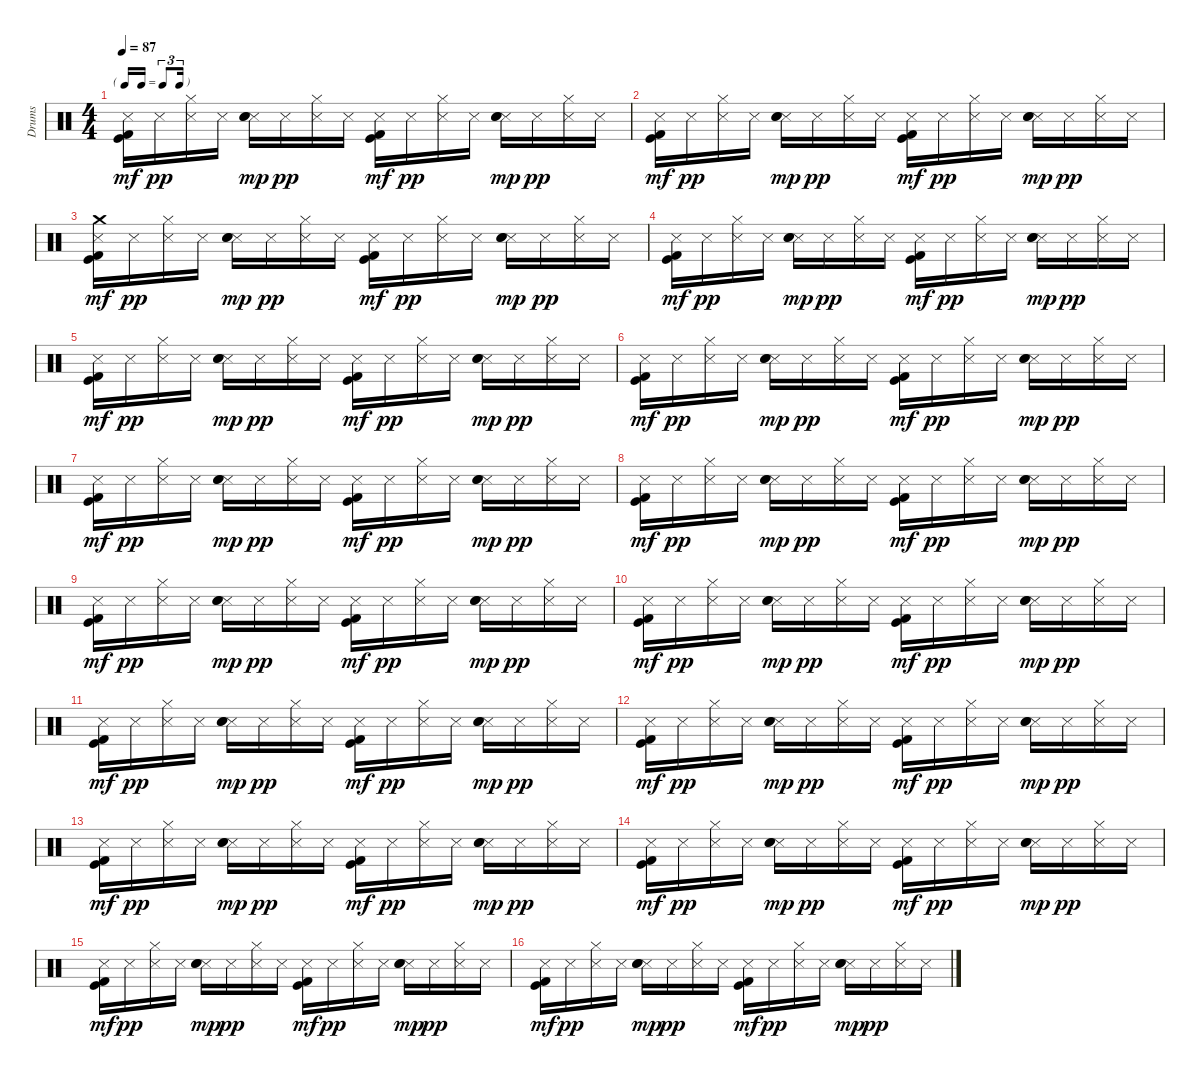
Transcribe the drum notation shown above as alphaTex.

\track ("Drums" "Drums") {instrument percussion}
\staff {score}
\articulation defaults
\ts (4 4)
\tf triplet16th
\tempo 87
\clef neutral
\ks c
("Metronome (hit)" "Kick (hit)" "Kick (hit) 2").16{dy mf} "Metronome (hit)".16{dy pp} ("Hi-Hat (closed)" "Metronome (hit)").16 "Metronome (hit)".16 ("Metronome (hit)" "Electric Snare (hit)" "Snare (hit) 2").16{dy mp} "Metronome (hit)".16{dy pp} ("Hi-Hat (closed)" "Metronome (hit)").16 "Metronome (hit)".16 ("Metronome (hit)" "Kick (hit)" "Kick (hit) 2").16{dy mf} "Metronome (hit)".16{dy pp} ("Hi-Hat (closed)" "Metronome (hit)").16 "Metronome (hit)".16 ("Metronome (hit)" "Electric Snare (hit)" "Snare (hit) 2").16{dy mp} "Metronome (hit)".16{dy pp} ("Hi-Hat (closed)" "Metronome (hit)").16 "Metronome (hit)".16 |
("Metronome (hit)" "Kick (hit)" "Kick (hit) 2").16{dy mf} "Metronome (hit)".16{dy pp} ("Hi-Hat (closed)" "Metronome (hit)").16 "Metronome (hit)".16 ("Metronome (hit)" "Electric Snare (hit)" "Snare (hit) 2").16{dy mp} "Metronome (hit)".16{dy pp} ("Hi-Hat (closed)" "Metronome (hit)").16 "Metronome (hit)".16 ("Metronome (hit)" "Kick (hit)" "Kick (hit) 2").16{dy mf} "Metronome (hit)".16{dy pp} ("Hi-Hat (closed)" "Metronome (hit)").16 "Metronome (hit)".16 ("Metronome (hit)" "Electric Snare (hit)" "Snare (hit) 2").16{dy mp} "Metronome (hit)".16{dy pp} ("Hi-Hat (closed)" "Metronome (hit)").16 "Metronome (hit)".16 |
("Metronome (hit)" "Crash medium (hit)" "Kick (hit)" "Kick (hit) 2").16{dy mf} "Metronome (hit)".16{dy pp} ("Hi-Hat (closed)" "Metronome (hit)").16 "Metronome (hit)".16 ("Metronome (hit)" "Electric Snare (hit)" "Snare (hit) 2").16{dy mp} "Metronome (hit)".16{dy pp} ("Hi-Hat (closed)" "Metronome (hit)").16 "Metronome (hit)".16 ("Metronome (hit)" "Kick (hit)" "Kick (hit) 2").16{dy mf} "Metronome (hit)".16{dy pp} ("Hi-Hat (closed)" "Metronome (hit)").16 "Metronome (hit)".16 ("Metronome (hit)" "Electric Snare (hit)" "Snare (hit) 2").16{dy mp} "Metronome (hit)".16{dy pp} ("Hi-Hat (closed)" "Metronome (hit)").16 "Metronome (hit)".16 |
("Metronome (hit)" "Kick (hit)" "Kick (hit) 2").16{dy mf} "Metronome (hit)".16{dy pp} ("Hi-Hat (closed)" "Metronome (hit)").16 "Metronome (hit)".16 ("Metronome (hit)" "Electric Snare (hit)" "Snare (hit) 2").16{dy mp} "Metronome (hit)".16{dy pp} ("Hi-Hat (closed)" "Metronome (hit)").16 "Metronome (hit)".16 ("Metronome (hit)" "Kick (hit)" "Kick (hit) 2").16{dy mf} "Metronome (hit)".16{dy pp} ("Hi-Hat (closed)" "Metronome (hit)").16 "Metronome (hit)".16 ("Metronome (hit)" "Electric Snare (hit)" "Snare (hit) 2").16{dy mp} "Metronome (hit)".16{dy pp} ("Hi-Hat (closed)" "Metronome (hit)").16 "Metronome (hit)".16 |
("Metronome (hit)" "Kick (hit)" "Kick (hit) 2").16{dy mf} "Metronome (hit)".16{dy pp} ("Hi-Hat (closed)" "Metronome (hit)").16 "Metronome (hit)".16 ("Metronome (hit)" "Electric Snare (hit)" "Snare (hit) 2").16{dy mp} "Metronome (hit)".16{dy pp} ("Hi-Hat (closed)" "Metronome (hit)").16 "Metronome (hit)".16 ("Metronome (hit)" "Kick (hit)" "Kick (hit) 2").16{dy mf} "Metronome (hit)".16{dy pp} ("Hi-Hat (closed)" "Metronome (hit)").16 "Metronome (hit)".16 ("Metronome (hit)" "Electric Snare (hit)" "Snare (hit) 2").16{dy mp} "Metronome (hit)".16{dy pp} ("Hi-Hat (closed)" "Metronome (hit)").16 "Metronome (hit)".16 |
("Metronome (hit)" "Kick (hit)" "Kick (hit) 2").16{dy mf} "Metronome (hit)".16{dy pp} ("Hi-Hat (closed)" "Metronome (hit)").16 "Metronome (hit)".16 ("Metronome (hit)" "Electric Snare (hit)" "Snare (hit) 2").16{dy mp} "Metronome (hit)".16{dy pp} ("Hi-Hat (closed)" "Metronome (hit)").16 "Metronome (hit)".16 ("Metronome (hit)" "Kick (hit)" "Kick (hit) 2").16{dy mf} "Metronome (hit)".16{dy pp} ("Hi-Hat (closed)" "Metronome (hit)").16 "Metronome (hit)".16 ("Metronome (hit)" "Electric Snare (hit)" "Snare (hit) 2").16{dy mp} "Metronome (hit)".16{dy pp} ("Hi-Hat (closed)" "Metronome (hit)").16 "Metronome (hit)".16 |
("Metronome (hit)" "Kick (hit)" "Kick (hit) 2").16{dy mf} "Metronome (hit)".16{dy pp} ("Hi-Hat (closed)" "Metronome (hit)").16 "Metronome (hit)".16 ("Metronome (hit)" "Electric Snare (hit)" "Snare (hit) 2").16{dy mp} "Metronome (hit)".16{dy pp} ("Hi-Hat (closed)" "Metronome (hit)").16 "Metronome (hit)".16 ("Metronome (hit)" "Kick (hit)" "Kick (hit) 2").16{dy mf} "Metronome (hit)".16{dy pp} ("Hi-Hat (closed)" "Metronome (hit)").16 "Metronome (hit)".16 ("Metronome (hit)" "Electric Snare (hit)" "Snare (hit) 2").16{dy mp} "Metronome (hit)".16{dy pp} ("Hi-Hat (closed)" "Metronome (hit)").16 "Metronome (hit)".16 |
("Metronome (hit)" "Kick (hit)" "Kick (hit) 2").16{dy mf} "Metronome (hit)".16{dy pp} ("Hi-Hat (closed)" "Metronome (hit)").16 "Metronome (hit)".16 ("Metronome (hit)" "Electric Snare (hit)" "Snare (hit) 2").16{dy mp} "Metronome (hit)".16{dy pp} ("Hi-Hat (closed)" "Metronome (hit)").16 "Metronome (hit)".16 ("Metronome (hit)" "Kick (hit)" "Kick (hit) 2").16{dy mf} "Metronome (hit)".16{dy pp} ("Hi-Hat (closed)" "Metronome (hit)").16 "Metronome (hit)".16 ("Metronome (hit)" "Electric Snare (hit)" "Snare (hit) 2").16{dy mp} "Metronome (hit)".16{dy pp} ("Hi-Hat (closed)" "Metronome (hit)").16 "Metronome (hit)".16 |
("Metronome (hit)" "Kick (hit)" "Kick (hit) 2").16{dy mf} "Metronome (hit)".16{dy pp} ("Hi-Hat (closed)" "Metronome (hit)").16 "Metronome (hit)".16 ("Metronome (hit)" "Electric Snare (hit)" "Snare (hit) 2").16{dy mp} "Metronome (hit)".16{dy pp} ("Hi-Hat (closed)" "Metronome (hit)").16 "Metronome (hit)".16 ("Metronome (hit)" "Kick (hit)" "Kick (hit) 2").16{dy mf} "Metronome (hit)".16{dy pp} ("Hi-Hat (closed)" "Metronome (hit)").16 "Metronome (hit)".16 ("Metronome (hit)" "Electric Snare (hit)" "Snare (hit) 2").16{dy mp} "Metronome (hit)".16{dy pp} ("Hi-Hat (closed)" "Metronome (hit)").16 "Metronome (hit)".16 |
("Metronome (hit)" "Kick (hit)" "Kick (hit) 2").16{dy mf} "Metronome (hit)".16{dy pp} ("Hi-Hat (closed)" "Metronome (hit)").16 "Metronome (hit)".16 ("Metronome (hit)" "Electric Snare (hit)" "Snare (hit) 2").16{dy mp} "Metronome (hit)".16{dy pp} ("Hi-Hat (closed)" "Metronome (hit)").16 "Metronome (hit)".16 ("Metronome (hit)" "Kick (hit)" "Kick (hit) 2").16{dy mf} "Metronome (hit)".16{dy pp} ("Hi-Hat (closed)" "Metronome (hit)").16 "Metronome (hit)".16 ("Metronome (hit)" "Electric Snare (hit)" "Snare (hit) 2").16{dy mp} "Metronome (hit)".16{dy pp} ("Hi-Hat (closed)" "Metronome (hit)").16 "Metronome (hit)".16 |
("Metronome (hit)" "Kick (hit)" "Kick (hit) 2").16{dy mf} "Metronome (hit)".16{dy pp} ("Hi-Hat (closed)" "Metronome (hit)").16 "Metronome (hit)".16 ("Metronome (hit)" "Electric Snare (hit)" "Snare (hit) 2").16{dy mp} "Metronome (hit)".16{dy pp} ("Hi-Hat (closed)" "Metronome (hit)").16 "Metronome (hit)".16 ("Metronome (hit)" "Kick (hit)" "Kick (hit) 2").16{dy mf} "Metronome (hit)".16{dy pp} ("Hi-Hat (closed)" "Metronome (hit)").16 "Metronome (hit)".16 ("Metronome (hit)" "Electric Snare (hit)" "Snare (hit) 2").16{dy mp} "Metronome (hit)".16{dy pp} ("Hi-Hat (closed)" "Metronome (hit)").16 "Metronome (hit)".16 |
("Metronome (hit)" "Kick (hit)" "Kick (hit) 2").16{dy mf} "Metronome (hit)".16{dy pp} ("Hi-Hat (closed)" "Metronome (hit)").16 "Metronome (hit)".16 ("Metronome (hit)" "Electric Snare (hit)" "Snare (hit) 2").16{dy mp} "Metronome (hit)".16{dy pp} ("Hi-Hat (closed)" "Metronome (hit)").16 "Metronome (hit)".16 ("Metronome (hit)" "Kick (hit)" "Kick (hit) 2").16{dy mf} "Metronome (hit)".16{dy pp} ("Hi-Hat (closed)" "Metronome (hit)").16 "Metronome (hit)".16 ("Metronome (hit)" "Electric Snare (hit)" "Snare (hit) 2").16{dy mp} "Metronome (hit)".16{dy pp} ("Hi-Hat (closed)" "Metronome (hit)").16 "Metronome (hit)".16 |
("Metronome (hit)" "Kick (hit)" "Kick (hit) 2").16{dy mf} "Metronome (hit)".16{dy pp} ("Hi-Hat (closed)" "Metronome (hit)").16 "Metronome (hit)".16 ("Metronome (hit)" "Electric Snare (hit)" "Snare (hit) 2").16{dy mp} "Metronome (hit)".16{dy pp} ("Hi-Hat (closed)" "Metronome (hit)").16 "Metronome (hit)".16 ("Metronome (hit)" "Kick (hit)" "Kick (hit) 2").16{dy mf} "Metronome (hit)".16{dy pp} ("Hi-Hat (closed)" "Metronome (hit)").16 "Metronome (hit)".16 ("Metronome (hit)" "Electric Snare (hit)" "Snare (hit) 2").16{dy mp} "Metronome (hit)".16{dy pp} ("Hi-Hat (closed)" "Metronome (hit)").16 "Metronome (hit)".16 |
("Metronome (hit)" "Kick (hit)" "Kick (hit) 2").16{dy mf} "Metronome (hit)".16{dy pp} ("Hi-Hat (closed)" "Metronome (hit)").16 "Metronome (hit)".16 ("Metronome (hit)" "Electric Snare (hit)" "Snare (hit) 2").16{dy mp} "Metronome (hit)".16{dy pp} ("Hi-Hat (closed)" "Metronome (hit)").16 "Metronome (hit)".16 ("Metronome (hit)" "Kick (hit)" "Kick (hit) 2").16{dy mf} "Metronome (hit)".16{dy pp} ("Hi-Hat (closed)" "Metronome (hit)").16 "Metronome (hit)".16 ("Metronome (hit)" "Electric Snare (hit)" "Snare (hit) 2").16{dy mp} "Metronome (hit)".16{dy pp} ("Hi-Hat (closed)" "Metronome (hit)").16 "Metronome (hit)".16 |
("Metronome (hit)" "Kick (hit)" "Kick (hit) 2").16{dy mf} "Metronome (hit)".16{dy pp} ("Hi-Hat (closed)" "Metronome (hit)").16 "Metronome (hit)".16 ("Metronome (hit)" "Electric Snare (hit)" "Snare (hit) 2").16{dy mp} "Metronome (hit)".16{dy pp} ("Hi-Hat (closed)" "Metronome (hit)").16 "Metronome (hit)".16 ("Metronome (hit)" "Kick (hit)" "Kick (hit) 2").16{dy mf} "Metronome (hit)".16{dy pp} ("Hi-Hat (closed)" "Metronome (hit)").16 "Metronome (hit)".16 ("Metronome (hit)" "Electric Snare (hit)" "Snare (hit) 2").16{dy mp} "Metronome (hit)".16{dy pp} ("Hi-Hat (closed)" "Metronome (hit)").16 "Metronome (hit)".16 |
("Metronome (hit)" "Kick (hit)" "Kick (hit) 2").16{dy mf} "Metronome (hit)".16{dy pp} ("Hi-Hat (closed)" "Metronome (hit)").16 "Metronome (hit)".16 ("Metronome (hit)" "Electric Snare (hit)" "Snare (hit) 2").16{dy mp} "Metronome (hit)".16{dy pp} ("Hi-Hat (closed)" "Metronome (hit)").16 "Metronome (hit)".16 ("Metronome (hit)" "Kick (hit)" "Kick (hit) 2").16{dy mf} "Metronome (hit)".16{dy pp} ("Hi-Hat (closed)" "Metronome (hit)").16 "Metronome (hit)".16 ("Metronome (hit)" "Electric Snare (hit)" "Snare (hit) 2").16{dy mp} "Metronome (hit)".16{dy pp} ("Hi-Hat (closed)" "Metronome (hit)").16 "Metronome (hit)".16
